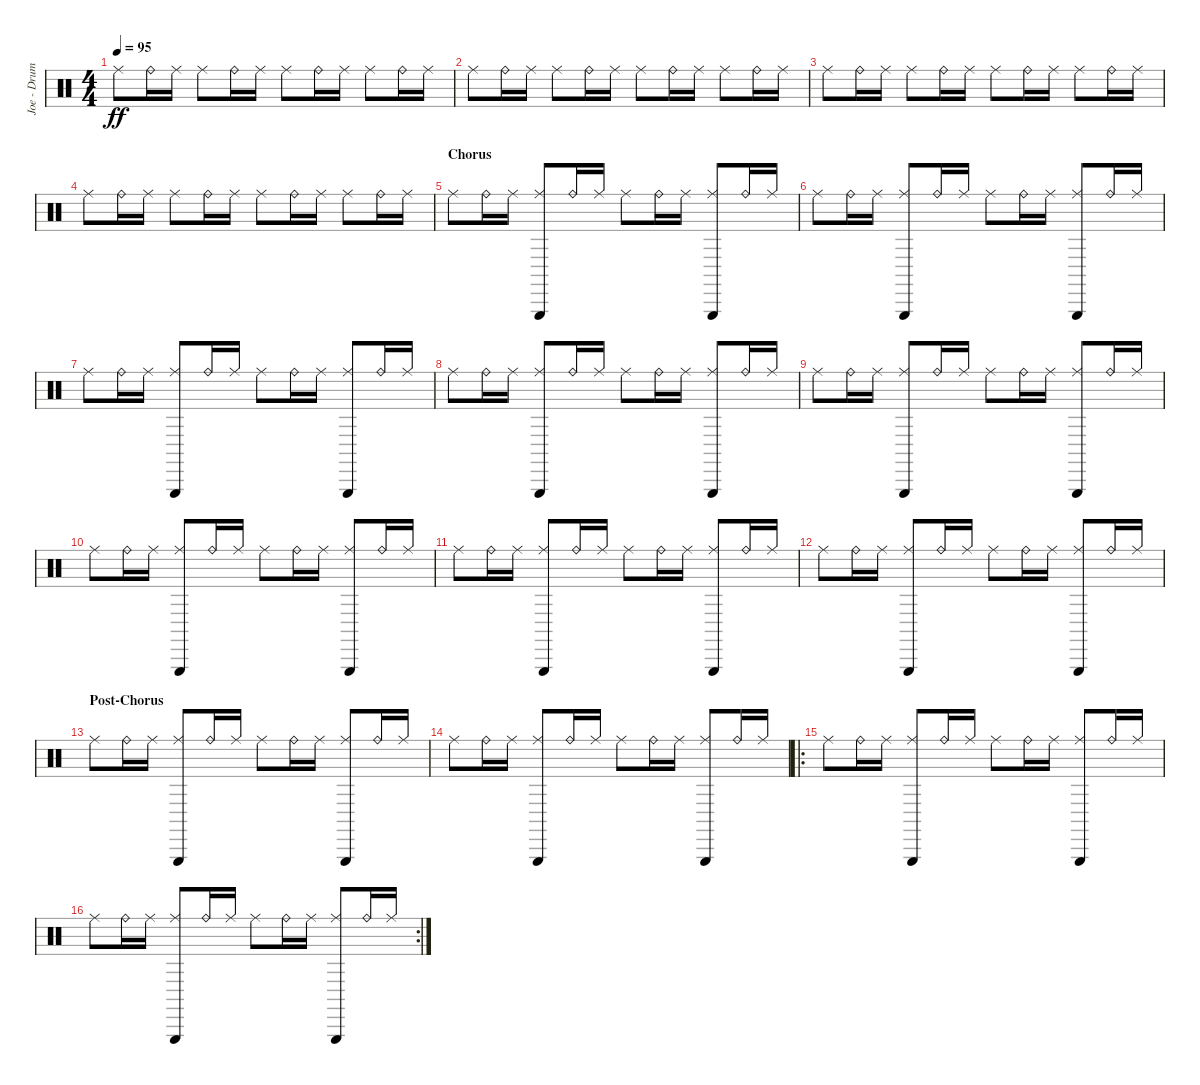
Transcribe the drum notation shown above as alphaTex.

\track ("Joe - Drums samples" "Joe - Drum") {instrument percussion}
\staff {score}
\articulation defaults
\ts (4 4)
\tempo 95
\clef neutral
\ks c "Ride (middle)".8{dy ff} "Ride (bell)".16 "Ride (middle)".16 "Ride (middle)".8 "Ride (bell)".16 "Ride (middle)".16 "Ride (middle)".8 "Ride (bell)".16 "Ride (middle)".16 "Ride (middle)".8 "Ride (bell)".16 "Ride (middle)".16
|
"Ride (middle)".8 "Ride (bell)".16 "Ride (middle)".16 "Ride (middle)".8 "Ride (bell)".16 "Ride (middle)".16 "Ride (middle)".8 "Ride (bell)".16 "Ride (middle)".16 "Ride (middle)".8 "Ride (bell)".16 "Ride (middle)".16 |
"Ride (middle)".8 "Ride (bell)".16 "Ride (middle)".16 "Ride (middle)".8 "Ride (bell)".16 "Ride (middle)".16 "Ride (middle)".8 "Ride (bell)".16 "Ride (middle)".16 "Ride (middle)".8 "Ride (bell)".16 "Ride (middle)".16 |
"Ride (middle)".8 "Ride (bell)".16 "Ride (middle)".16 "Ride (middle)".8 "Ride (bell)".16 "Ride (middle)".16 "Ride (middle)".8 "Ride (bell)".16 "Ride (middle)".16 "Ride (middle)".8 "Ride (bell)".16 "Ride (middle)".16 |
\section ("" "Chorus")
"Ride (middle)".8 "Ride (bell)".16 "Ride (middle)".16 ("Triangle (hit)" "Ride (middle)").8 "Ride (bell)".16 "Ride (middle)".16 "Ride (middle)".8 "Ride (bell)".16 "Ride (middle)".16 ("Triangle (hit)" "Ride (middle)").8 "Ride (bell)".16 "Ride (middle)".16 |
"Ride (middle)".8 "Ride (bell)".16 "Ride (middle)".16 ("Triangle (hit)" "Ride (middle)").8 "Ride (bell)".16 "Ride (middle)".16 "Ride (middle)".8 "Ride (bell)".16 "Ride (middle)".16 ("Triangle (hit)" "Ride (middle)").8 "Ride (bell)".16 "Ride (middle)".16 |
"Ride (middle)".8 "Ride (bell)".16 "Ride (middle)".16 ("Triangle (hit)" "Ride (middle)").8 "Ride (bell)".16 "Ride (middle)".16 "Ride (middle)".8 "Ride (bell)".16 "Ride (middle)".16 ("Triangle (hit)" "Ride (middle)").8 "Ride (bell)".16 "Ride (middle)".16 |
"Ride (middle)".8 "Ride (bell)".16 "Ride (middle)".16 ("Triangle (hit)" "Ride (middle)").8 "Ride (bell)".16 "Ride (middle)".16 "Ride (middle)".8 "Ride (bell)".16 "Ride (middle)".16 ("Triangle (hit)" "Ride (middle)").8 "Ride (bell)".16 "Ride (middle)".16 |
"Ride (middle)".8 "Ride (bell)".16 "Ride (middle)".16 ("Triangle (hit)" "Ride (middle)").8 "Ride (bell)".16 "Ride (middle)".16 "Ride (middle)".8 "Ride (bell)".16 "Ride (middle)".16 ("Triangle (hit)" "Ride (middle)").8 "Ride (bell)".16 "Ride (middle)".16 |
"Ride (middle)".8 "Ride (bell)".16 "Ride (middle)".16 ("Triangle (hit)" "Ride (middle)").8 "Ride (bell)".16 "Ride (middle)".16 "Ride (middle)".8 "Ride (bell)".16 "Ride (middle)".16 ("Triangle (hit)" "Ride (middle)").8 "Ride (bell)".16 "Ride (middle)".16 |
"Ride (middle)".8 "Ride (bell)".16 "Ride (middle)".16 ("Triangle (hit)" "Ride (middle)").8 "Ride (bell)".16 "Ride (middle)".16 "Ride (middle)".8 "Ride (bell)".16 "Ride (middle)".16 ("Triangle (hit)" "Ride (middle)").8 "Ride (bell)".16 "Ride (middle)".16 |
"Ride (middle)".8 "Ride (bell)".16 "Ride (middle)".16 ("Triangle (hit)" "Ride (middle)").8 "Ride (bell)".16 "Ride (middle)".16 "Ride (middle)".8 "Ride (bell)".16 "Ride (middle)".16 ("Triangle (hit)" "Ride (middle)").8 "Ride (bell)".16 "Ride (middle)".16 |
\section ("" "Post-Chorus")
"Ride (middle)".8 "Ride (bell)".16 "Ride (middle)".16 ("Triangle (hit)" "Ride (middle)").8 "Ride (bell)".16 "Ride (middle)".16 "Ride (middle)".8 "Ride (bell)".16 "Ride (middle)".16 ("Triangle (hit)" "Ride (middle)").8 "Ride (bell)".16 "Ride (middle)".16 |
"Ride (middle)".8 "Ride (bell)".16 "Ride (middle)".16 ("Triangle (hit)" "Ride (middle)").8 "Ride (bell)".16 "Ride (middle)".16 "Ride (middle)".8 "Ride (bell)".16 "Ride (middle)".16 ("Triangle (hit)" "Ride (middle)").8 "Ride (bell)".16 "Ride (middle)".16 |
\ro "Ride (middle)".8 "Ride (bell)".16 "Ride (middle)".16
("Triangle (hit)" "Ride (middle)").8 "Ride (bell)".16 "Ride (middle)".16 "Ride (middle)".8 "Ride (bell)".16 "Ride (middle)".16 ("Triangle (hit)" "Ride (middle)").8 "Ride (bell)".16 "Ride (middle)".16 |
\rc 2 "Ride (middle)".8 "Ride (bell)".16 "Ride (middle)".16
("Triangle (hit)" "Ride (middle)").8 "Ride (bell)".16 "Ride (middle)".16 "Ride (middle)".8 "Ride (bell)".16 "Ride (middle)".16 ("Triangle (hit)" "Ride (middle)").8 "Ride (bell)".16 "Ride (middle)".16
